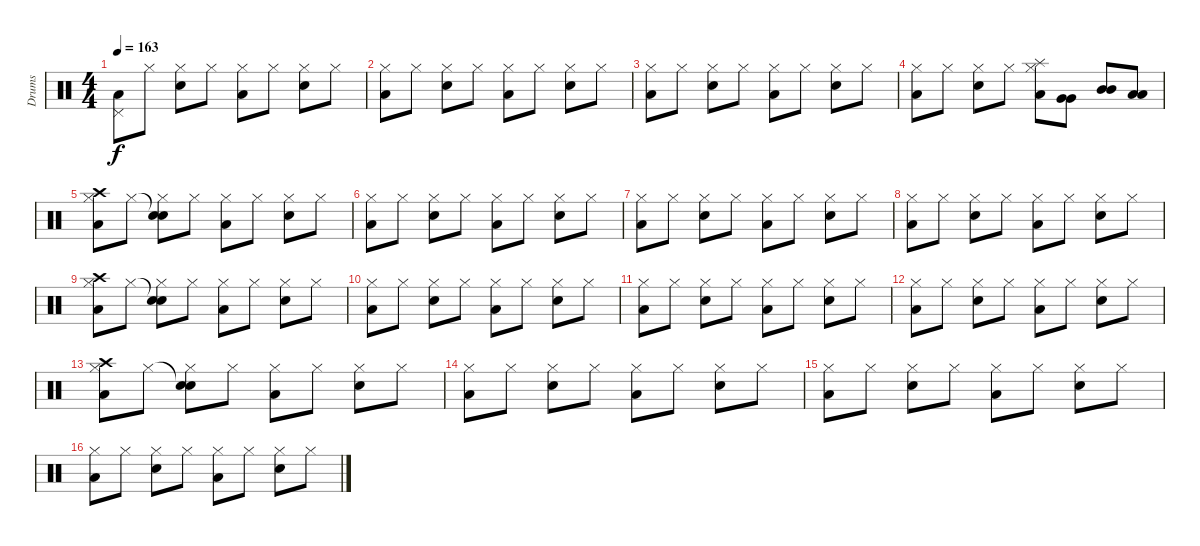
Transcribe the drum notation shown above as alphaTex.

\track ("Drums" "Drums") {instrument percussion}
\staff {score}
\articulation defaults
\ts (4 4)
\tempo 163
\clef neutral
\ks c
("Low Tom (hit)" "Pedal Hi-Hat (hit)").8{dy f} "Hi-Hat (closed)".8 ("Snare (hit) 2" "Hi-Hat (closed)").8 "Hi-Hat (closed)".8 ("Low Tom (hit)" "Hi-Hat (closed)").8 "Hi-Hat (closed)".8 ("Snare (hit) 2" "Hi-Hat (closed)").8 "Hi-Hat (closed)".8 |
("Low Tom (hit)" "Hi-Hat (closed)").8 "Hi-Hat (closed)".8 ("Snare (hit) 2" "Hi-Hat (closed)").8 "Hi-Hat (closed)".8 ("Low Tom (hit)" "Hi-Hat (closed)").8 "Hi-Hat (closed)".8 ("Snare (hit) 2" "Hi-Hat (closed)").8 "Hi-Hat (closed)".8 |
("Low Tom (hit)" "Hi-Hat (closed)").8 "Hi-Hat (closed)".8 ("Snare (hit) 2" "Hi-Hat (closed)").8 "Hi-Hat (closed)".8 ("Low Tom (hit)" "Hi-Hat (closed)").8 "Hi-Hat (closed)".8 ("Snare (hit) 2" "Hi-Hat (closed)").8 "Hi-Hat (closed)".8 |
("Low Tom (hit)" "Hi-Hat (closed)").8 "Hi-Hat (closed)".8 ("Snare (hit) 2" "Hi-Hat (closed)").8 "Hi-Hat (closed)".8 ("Splash (hit)" "Low Tom (hit)" "Hi-Hat (closed)").8 ("Very Low Tom (hit)" "Very Low Tom (hit)").8 ("Mid Tom (hit)" "Mid Tom (hit)").8 ("Low Tom (hit)" "Low Tom (hit)").8 |
("Crash high (hit)" "Low Tom (hit)" "Hi-Hat (closed)").8 "Hi-Hat (closed)".8 ("Snare (hit)"{t} "Snare (hit) 2" "Hi-Hat (closed)").8 "Hi-Hat (closed)".8 ("Low Tom (hit)" "Hi-Hat (closed)").8 "Hi-Hat (closed)".8 ("Snare (hit) 2" "Hi-Hat (closed)").8 "Hi-Hat (closed)".8 |
("Low Tom (hit)" "Hi-Hat (closed)").8 "Hi-Hat (closed)".8 ("Snare (hit) 2" "Hi-Hat (closed)").8 "Hi-Hat (closed)".8 ("Low Tom (hit)" "Hi-Hat (closed)").8 "Hi-Hat (closed)".8 ("Snare (hit) 2" "Hi-Hat (closed)").8 "Hi-Hat (closed)".8 |
("Low Tom (hit)" "Hi-Hat (closed)").8 "Hi-Hat (closed)".8 ("Snare (hit) 2" "Hi-Hat (closed)").8 "Hi-Hat (closed)".8 ("Low Tom (hit)" "Hi-Hat (closed)").8 "Hi-Hat (closed)".8 ("Snare (hit) 2" "Hi-Hat (closed)").8 "Hi-Hat (closed)".8 |
("Low Tom (hit)" "Hi-Hat (closed)").8 "Hi-Hat (closed)".8 ("Snare (hit) 2" "Hi-Hat (closed)").8 "Hi-Hat (closed)".8 ("Low Tom (hit)" "Hi-Hat (closed)").8 "Hi-Hat (closed)".8 ("Snare (hit) 2" "Hi-Hat (closed)").8 "Hi-Hat (closed)".8 |
("Crash high (hit)" "Low Tom (hit)" "Hi-Hat (closed)").8 "Hi-Hat (closed)".8 ("Snare (hit)"{t} "Snare (hit) 2" "Hi-Hat (closed)").8 "Hi-Hat (closed)".8 ("Low Tom (hit)" "Hi-Hat (closed)").8 "Hi-Hat (closed)".8 ("Snare (hit) 2" "Hi-Hat (closed)").8 "Hi-Hat (closed)".8 |
("Low Tom (hit)" "Hi-Hat (closed)").8 "Hi-Hat (closed)".8 ("Snare (hit) 2" "Hi-Hat (closed)").8 "Hi-Hat (closed)".8 ("Low Tom (hit)" "Hi-Hat (closed)").8 "Hi-Hat (closed)".8 ("Snare (hit) 2" "Hi-Hat (closed)").8 "Hi-Hat (closed)".8 |
("Low Tom (hit)" "Hi-Hat (closed)").8 "Hi-Hat (closed)".8 ("Snare (hit) 2" "Hi-Hat (closed)").8 "Hi-Hat (closed)".8 ("Low Tom (hit)" "Hi-Hat (closed)").8 "Hi-Hat (closed)".8 ("Snare (hit) 2" "Hi-Hat (closed)").8 "Hi-Hat (closed)".8 |
("Low Tom (hit)" "Hi-Hat (closed)").8 "Hi-Hat (closed)".8 ("Snare (hit) 2" "Hi-Hat (closed)").8 "Hi-Hat (closed)".8 ("Low Tom (hit)" "Hi-Hat (closed)").8 "Hi-Hat (closed)".8 ("Snare (hit) 2" "Hi-Hat (closed)").8 "Hi-Hat (closed)".8 |
("Crash high (hit)" "Low Tom (hit)" "Hi-Hat (closed)").8 "Hi-Hat (closed)".8 ("Snare (hit)"{t} "Snare (hit) 2" "Hi-Hat (closed)").8 "Hi-Hat (closed)".8 ("Low Tom (hit)" "Hi-Hat (closed)").8 "Hi-Hat (closed)".8 ("Snare (hit) 2" "Hi-Hat (closed)").8 "Hi-Hat (closed)".8 |
("Low Tom (hit)" "Hi-Hat (closed)").8 "Hi-Hat (closed)".8 ("Snare (hit) 2" "Hi-Hat (closed)").8 "Hi-Hat (closed)".8 ("Low Tom (hit)" "Hi-Hat (closed)").8 "Hi-Hat (closed)".8 ("Snare (hit) 2" "Hi-Hat (closed)").8 "Hi-Hat (closed)".8 |
("Low Tom (hit)" "Hi-Hat (closed)").8 "Hi-Hat (closed)".8 ("Snare (hit) 2" "Hi-Hat (closed)").8 "Hi-Hat (closed)".8 ("Low Tom (hit)" "Hi-Hat (closed)").8 "Hi-Hat (closed)".8 ("Snare (hit) 2" "Hi-Hat (closed)").8 "Hi-Hat (closed)".8 |
("Low Tom (hit)" "Hi-Hat (closed)").8 "Hi-Hat (closed)".8 ("Snare (hit) 2" "Hi-Hat (closed)").8 "Hi-Hat (closed)".8 ("Low Tom (hit)" "Hi-Hat (closed)").8 "Hi-Hat (closed)".8 ("Snare (hit) 2" "Hi-Hat (closed)").8 "Hi-Hat (closed)".8
